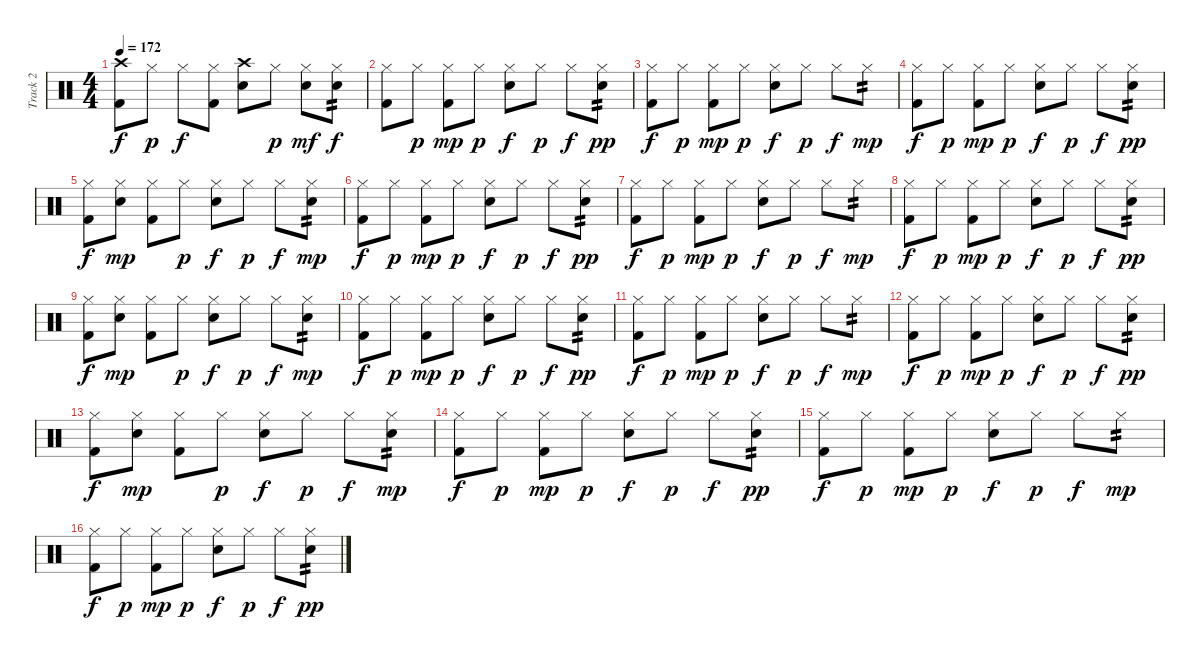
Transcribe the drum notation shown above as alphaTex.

\track ("Track 2" "Track 2") {instrument percussion}
\staff {score}
\articulation defaults
\ts (4 4)
\tempo 172
\clef neutral
\ks c
("Crash high (hit)" "Kick (hit) 2").8{dy f} "Hi-Hat (closed)".8{dy p} "Hi-Hat (closed)".8{dy f} ("Hi-Hat (closed)" "Kick (hit) 2").8 ("Crash high (hit)" "Snare (hit) 2").8 "Hi-Hat (closed)".8{dy p} ("Hi-Hat (closed)" "Snare (hit) 2").8{dy mf} ("Hi-Hat (closed)" "Snare (hit) 2").8{tp 2 dy f} |
("Hi-Hat (closed)" "Kick (hit) 2").8 "Hi-Hat (closed)".8{dy p} ("Hi-Hat (closed)" "Kick (hit) 2").8{dy mp} "Hi-Hat (closed)".8{dy p} ("Hi-Hat (closed)" "Snare (hit) 2").8{dy f} "Hi-Hat (closed)".8{dy p} "Hi-Hat (closed)".8{dy f} ("Hi-Hat (closed)" "Snare (hit) 2").8{tp 2 dy pp} |
("Hi-Hat (closed)" "Kick (hit) 2").8{dy f} "Hi-Hat (closed)".8{dy p} ("Hi-Hat (closed)" "Kick (hit) 2").8{dy mp} "Hi-Hat (closed)".8{dy p} ("Hi-Hat (closed)" "Snare (hit) 2").8{dy f} "Hi-Hat (closed)".8{dy p} "Hi-Hat (closed)".8{dy f} "Hi-Hat (closed)".8{tp 2 dy mp} |
("Hi-Hat (closed)" "Kick (hit) 2").8{dy f} "Hi-Hat (closed)".8{dy p} ("Hi-Hat (closed)" "Kick (hit) 2").8{dy mp} "Hi-Hat (closed)".8{dy p} ("Hi-Hat (closed)" "Snare (hit) 2").8{dy f} "Hi-Hat (closed)".8{dy p} "Hi-Hat (closed)".8{dy f} ("Hi-Hat (closed)" "Snare (hit) 2").8{tp 2 dy pp} |
("Hi-Hat (closed)" "Kick (hit) 2").8{dy f} ("Hi-Hat (closed)" "Snare (hit) 2").8{dy mp} ("Hi-Hat (closed)" "Kick (hit) 2").8 "Hi-Hat (closed)".8{dy p} ("Hi-Hat (closed)" "Snare (hit) 2").8{dy f} "Hi-Hat (closed)".8{dy p} "Hi-Hat (closed)".8{dy f} ("Hi-Hat (closed)" "Snare (hit) 2").8{tp 2 dy mp} |
("Hi-Hat (closed)" "Kick (hit) 2").8{dy f} "Hi-Hat (closed)".8{dy p} ("Hi-Hat (closed)" "Kick (hit) 2").8{dy mp} "Hi-Hat (closed)".8{dy p} ("Hi-Hat (closed)" "Snare (hit) 2").8{dy f} "Hi-Hat (closed)".8{dy p} "Hi-Hat (closed)".8{dy f} ("Hi-Hat (closed)" "Snare (hit) 2").8{tp 2 dy pp} |
("Hi-Hat (closed)" "Kick (hit) 2").8{dy f} "Hi-Hat (closed)".8{dy p} ("Hi-Hat (closed)" "Kick (hit) 2").8{dy mp} "Hi-Hat (closed)".8{dy p} ("Hi-Hat (closed)" "Snare (hit) 2").8{dy f} "Hi-Hat (closed)".8{dy p} "Hi-Hat (closed)".8{dy f} "Hi-Hat (closed)".8{tp 2 dy mp} |
("Hi-Hat (closed)" "Kick (hit) 2").8{dy f} "Hi-Hat (closed)".8{dy p} ("Hi-Hat (closed)" "Kick (hit) 2").8{dy mp} "Hi-Hat (closed)".8{dy p} ("Hi-Hat (closed)" "Snare (hit) 2").8{dy f} "Hi-Hat (closed)".8{dy p} "Hi-Hat (closed)".8{dy f} ("Hi-Hat (closed)" "Snare (hit) 2").8{tp 2 dy pp} |
("Hi-Hat (closed)" "Kick (hit) 2").8{dy f} ("Hi-Hat (closed)" "Snare (hit) 2").8{dy mp} ("Hi-Hat (closed)" "Kick (hit) 2").8 "Hi-Hat (closed)".8{dy p} ("Hi-Hat (closed)" "Snare (hit) 2").8{dy f} "Hi-Hat (closed)".8{dy p} "Hi-Hat (closed)".8{dy f} ("Hi-Hat (closed)" "Snare (hit) 2").8{tp 2 dy mp} |
("Hi-Hat (closed)" "Kick (hit) 2").8{dy f} "Hi-Hat (closed)".8{dy p} ("Hi-Hat (closed)" "Kick (hit) 2").8{dy mp} "Hi-Hat (closed)".8{dy p} ("Hi-Hat (closed)" "Snare (hit) 2").8{dy f} "Hi-Hat (closed)".8{dy p} "Hi-Hat (closed)".8{dy f} ("Hi-Hat (closed)" "Snare (hit) 2").8{tp 2 dy pp} |
("Hi-Hat (closed)" "Kick (hit) 2").8{dy f} "Hi-Hat (closed)".8{dy p} ("Hi-Hat (closed)" "Kick (hit) 2").8{dy mp} "Hi-Hat (closed)".8{dy p} ("Hi-Hat (closed)" "Snare (hit) 2").8{dy f} "Hi-Hat (closed)".8{dy p} "Hi-Hat (closed)".8{dy f} "Hi-Hat (closed)".8{tp 2 dy mp} |
("Hi-Hat (closed)" "Kick (hit) 2").8{dy f} "Hi-Hat (closed)".8{dy p} ("Hi-Hat (closed)" "Kick (hit) 2").8{dy mp} "Hi-Hat (closed)".8{dy p} ("Hi-Hat (closed)" "Snare (hit) 2").8{dy f} "Hi-Hat (closed)".8{dy p} "Hi-Hat (closed)".8{dy f} ("Hi-Hat (closed)" "Snare (hit) 2").8{tp 2 dy pp} |
("Hi-Hat (closed)" "Kick (hit) 2").8{dy f} ("Hi-Hat (closed)" "Snare (hit) 2").8{dy mp} ("Hi-Hat (closed)" "Kick (hit) 2").8 "Hi-Hat (closed)".8{dy p} ("Hi-Hat (closed)" "Snare (hit) 2").8{dy f} "Hi-Hat (closed)".8{dy p} "Hi-Hat (closed)".8{dy f} ("Hi-Hat (closed)" "Snare (hit) 2").8{tp 2 dy mp} |
("Hi-Hat (closed)" "Kick (hit) 2").8{dy f} "Hi-Hat (closed)".8{dy p} ("Hi-Hat (closed)" "Kick (hit) 2").8{dy mp} "Hi-Hat (closed)".8{dy p} ("Hi-Hat (closed)" "Snare (hit) 2").8{dy f} "Hi-Hat (closed)".8{dy p} "Hi-Hat (closed)".8{dy f} ("Hi-Hat (closed)" "Snare (hit) 2").8{tp 2 dy pp} |
("Hi-Hat (closed)" "Kick (hit) 2").8{dy f} "Hi-Hat (closed)".8{dy p} ("Hi-Hat (closed)" "Kick (hit) 2").8{dy mp} "Hi-Hat (closed)".8{dy p} ("Hi-Hat (closed)" "Snare (hit) 2").8{dy f} "Hi-Hat (closed)".8{dy p} "Hi-Hat (closed)".8{dy f} "Hi-Hat (closed)".8{tp 2 dy mp} |
("Hi-Hat (closed)" "Kick (hit) 2").8{dy f} "Hi-Hat (closed)".8{dy p} ("Hi-Hat (closed)" "Kick (hit) 2").8{dy mp} "Hi-Hat (closed)".8{dy p} ("Hi-Hat (closed)" "Snare (hit) 2").8{dy f} "Hi-Hat (closed)".8{dy p} "Hi-Hat (closed)".8{dy f} ("Hi-Hat (closed)" "Snare (hit) 2").8{tp 2 dy pp}
